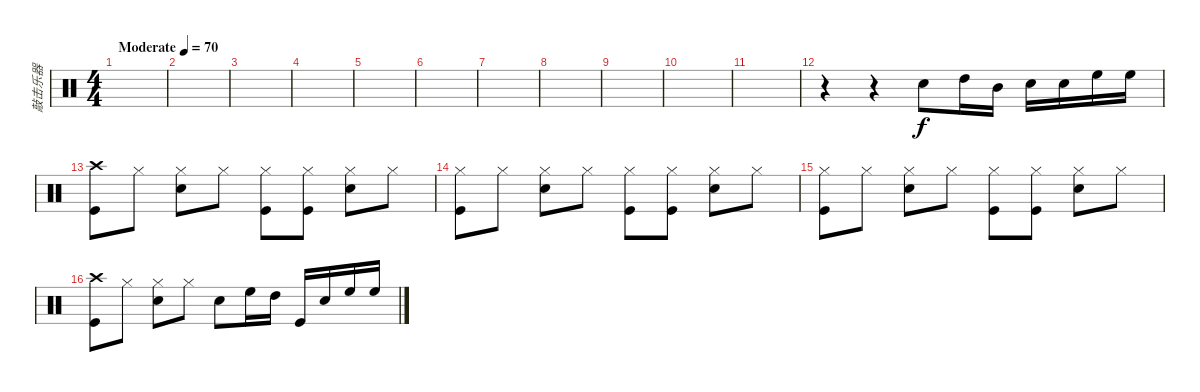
\track ("敲击乐器" "敲击乐器") {instrument percussion}
\staff {score}
\articulation defaults
\ts (4 4)
\tempo (70 "Moderate")
\clef neutral
\ks c
|
|
|
|
|
|
|
|
|
|
|
r.4 r.4 "Snare (hit) 2".8 "High Tom (hit)".16 "Mid Tom (hit)".16 "Snare (hit) 2".16 "Snare (hit) 2".16 "High Floor Tom (hit)".16 "High Floor Tom (hit)".16 |
("Crash high (hit)" "Kick (hit)").8 "Hi-Hat (closed)".8 ("Hi-Hat (closed)" "Snare (hit) 2").8 "Hi-Hat (closed)".8 ("Hi-Hat (closed)" "Kick (hit)").8 ("Hi-Hat (closed)" "Kick (hit)").8 ("Hi-Hat (closed)" "Snare (hit) 2").8 "Hi-Hat (closed)".8 |
("Hi-Hat (closed)" "Kick (hit)").8 "Hi-Hat (closed)".8 ("Hi-Hat (closed)" "Snare (hit) 2").8 "Hi-Hat (closed)".8 ("Hi-Hat (closed)" "Kick (hit)").8 ("Hi-Hat (closed)" "Kick (hit)").8 ("Hi-Hat (closed)" "Snare (hit) 2").8 "Hi-Hat (closed)".8 |
("Hi-Hat (closed)" "Kick (hit)").8 "Hi-Hat (closed)".8 ("Hi-Hat (closed)" "Snare (hit) 2").8 "Hi-Hat (closed)".8 ("Hi-Hat (closed)" "Kick (hit)").8 ("Hi-Hat (closed)" "Kick (hit)").8 ("Hi-Hat (closed)" "Snare (hit) 2").8 "Hi-Hat (closed)".8 |
("Crash high (hit)" "Kick (hit)").8 "Hi-Hat (closed)".8 ("Hi-Hat (closed)" "Snare (hit) 2").8 "Hi-Hat (closed)".8 "Snare (hit) 2".8 "High Floor Tom (hit)".16 "High Tom (hit)".16 "Kick (hit)".16 "Snare (hit) 2".16 "High Floor Tom (hit)".16 "High Floor Tom (hit)".16
